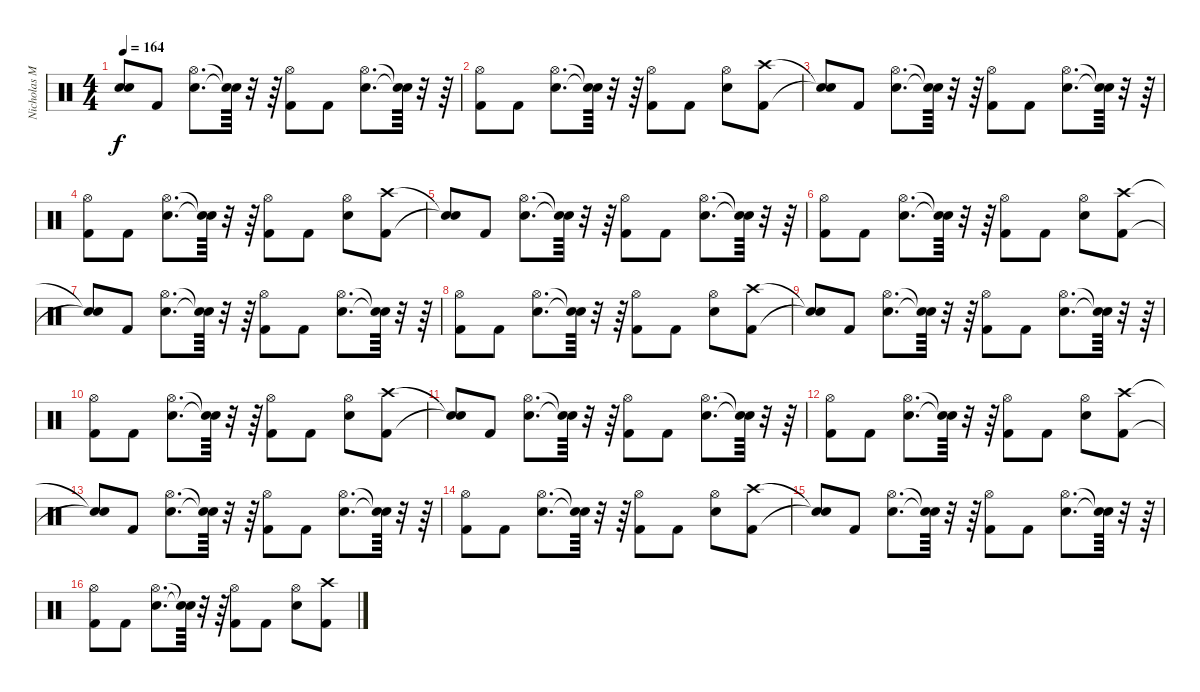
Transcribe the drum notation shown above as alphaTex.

\track ("Nicholas McBrain (Drums)" "Nicholas M") {instrument percussion}
\staff {score}
\articulation defaults
\ts (4 4)
\tempo 164
\clef neutral
\ks c
("Snare (hit)"{t} "Snare (hit)"{t}).8{dy f} "Kick (hit) 2".8 ("Snare (hit) 2" "Hi-Hat (open)").8{d} ("Snare (hit)"{t} "Snare (hit)"{t}).64 r.32 r.64 ("Kick (hit) 2" "Hi-Hat (open)").8 "Kick (hit) 2".8 ("Snare (hit) 2" "Hi-Hat (open)").8{d} ("Snare (hit)"{t} "Snare (hit)"{t}).64 r.32 r.64 |
("Kick (hit) 2" "Hi-Hat (open)").8 "Kick (hit) 2".8 ("Snare (hit) 2" "Hi-Hat (open)").8{d} ("Snare (hit)"{t} "Snare (hit)"{t}).64 r.32 r.64 ("Kick (hit) 2" "Hi-Hat (open)").8 "Kick (hit) 2".8 ("Snare (hit) 2" "Hi-Hat (open)").8 ("Kick (hit) 2" "Crash high (hit)").8 |
("Snare (hit)"{t} "Snare (hit)"{t}).8 "Kick (hit) 2".8 ("Snare (hit) 2" "Hi-Hat (open)").8{d} ("Snare (hit)"{t} "Snare (hit)"{t}).64 r.32 r.64 ("Kick (hit) 2" "Hi-Hat (open)").8 "Kick (hit) 2".8 ("Snare (hit) 2" "Hi-Hat (open)").8{d} ("Snare (hit)"{t} "Snare (hit)"{t}).64 r.32 r.64 |
("Kick (hit) 2" "Hi-Hat (open)").8 "Kick (hit) 2".8 ("Snare (hit) 2" "Hi-Hat (open)").8{d} ("Snare (hit)"{t} "Snare (hit)"{t}).64 r.32 r.64 ("Kick (hit) 2" "Hi-Hat (open)").8 "Kick (hit) 2".8 ("Snare (hit) 2" "Hi-Hat (open)").8 ("Kick (hit) 2" "Crash high (hit)").8 |
("Snare (hit)"{t} "Snare (hit)"{t}).8 "Kick (hit) 2".8 ("Snare (hit) 2" "Hi-Hat (open)").8{d} ("Snare (hit)"{t} "Snare (hit)"{t}).64 r.32 r.64 ("Kick (hit) 2" "Hi-Hat (open)").8 "Kick (hit) 2".8 ("Snare (hit) 2" "Hi-Hat (open)").8{d} ("Snare (hit)"{t} "Snare (hit)"{t}).64 r.32 r.64 |
("Kick (hit) 2" "Hi-Hat (open)").8 "Kick (hit) 2".8 ("Snare (hit) 2" "Hi-Hat (open)").8{d} ("Snare (hit)"{t} "Snare (hit)"{t}).64 r.32 r.64 ("Kick (hit) 2" "Hi-Hat (open)").8 "Kick (hit) 2".8 ("Snare (hit) 2" "Hi-Hat (open)").8 ("Kick (hit) 2" "Crash high (hit)").8 |
("Snare (hit)"{t} "Snare (hit)"{t}).8 "Kick (hit) 2".8 ("Snare (hit) 2" "Hi-Hat (open)").8{d} ("Snare (hit)"{t} "Snare (hit)"{t}).64 r.32 r.64 ("Kick (hit) 2" "Hi-Hat (open)").8 "Kick (hit) 2".8 ("Snare (hit) 2" "Hi-Hat (open)").8{d} ("Snare (hit)"{t} "Snare (hit)"{t}).64 r.32 r.64 |
("Kick (hit) 2" "Hi-Hat (open)").8 "Kick (hit) 2".8 ("Snare (hit) 2" "Hi-Hat (open)").8{d} ("Snare (hit)"{t} "Snare (hit)"{t}).64 r.32 r.64 ("Kick (hit) 2" "Hi-Hat (open)").8 "Kick (hit) 2".8 ("Snare (hit) 2" "Hi-Hat (open)").8 ("Kick (hit) 2" "Crash high (hit)").8 |
("Snare (hit)"{t} "Snare (hit)"{t}).8 "Kick (hit) 2".8 ("Snare (hit) 2" "Hi-Hat (open)").8{d} ("Snare (hit)"{t} "Snare (hit)"{t}).64 r.32 r.64 ("Kick (hit) 2" "Hi-Hat (open)").8 "Kick (hit) 2".8 ("Snare (hit) 2" "Hi-Hat (open)").8{d} ("Snare (hit)"{t} "Snare (hit)"{t}).64 r.32 r.64 |
("Kick (hit) 2" "Hi-Hat (open)").8 "Kick (hit) 2".8 ("Snare (hit) 2" "Hi-Hat (open)").8{d} ("Snare (hit)"{t} "Snare (hit)"{t}).64 r.32 r.64 ("Kick (hit) 2" "Hi-Hat (open)").8 "Kick (hit) 2".8 ("Snare (hit) 2" "Hi-Hat (open)").8 ("Kick (hit) 2" "Crash high (hit)").8 |
("Snare (hit)"{t} "Snare (hit)"{t}).8 "Kick (hit) 2".8 ("Snare (hit) 2" "Hi-Hat (open)").8{d} ("Snare (hit)"{t} "Snare (hit)"{t}).64 r.32 r.64 ("Kick (hit) 2" "Hi-Hat (open)").8 "Kick (hit) 2".8 ("Snare (hit) 2" "Hi-Hat (open)").8{d} ("Snare (hit)"{t} "Snare (hit)"{t}).64 r.32 r.64 |
("Kick (hit) 2" "Hi-Hat (open)").8 "Kick (hit) 2".8 ("Snare (hit) 2" "Hi-Hat (open)").8{d} ("Snare (hit)"{t} "Snare (hit)"{t}).64 r.32 r.64 ("Kick (hit) 2" "Hi-Hat (open)").8 "Kick (hit) 2".8 ("Snare (hit) 2" "Hi-Hat (open)").8 ("Kick (hit) 2" "Crash high (hit)").8 |
("Snare (hit)"{t} "Snare (hit)"{t}).8 "Kick (hit) 2".8 ("Snare (hit) 2" "Hi-Hat (open)").8{d} ("Snare (hit)"{t} "Snare (hit)"{t}).64 r.32 r.64 ("Kick (hit) 2" "Hi-Hat (open)").8 "Kick (hit) 2".8 ("Snare (hit) 2" "Hi-Hat (open)").8{d} ("Snare (hit)"{t} "Snare (hit)"{t}).64 r.32 r.64 |
("Kick (hit) 2" "Hi-Hat (open)").8 "Kick (hit) 2".8 ("Snare (hit) 2" "Hi-Hat (open)").8{d} ("Snare (hit)"{t} "Snare (hit)"{t}).64 r.32 r.64 ("Kick (hit) 2" "Hi-Hat (open)").8 "Kick (hit) 2".8 ("Snare (hit) 2" "Hi-Hat (open)").8 ("Kick (hit) 2" "Crash high (hit)").8 |
("Snare (hit)"{t} "Snare (hit)"{t}).8 "Kick (hit) 2".8 ("Snare (hit) 2" "Hi-Hat (open)").8{d} ("Snare (hit)"{t} "Snare (hit)"{t}).64 r.32 r.64 ("Kick (hit) 2" "Hi-Hat (open)").8 "Kick (hit) 2".8 ("Snare (hit) 2" "Hi-Hat (open)").8{d} ("Snare (hit)"{t} "Snare (hit)"{t}).64 r.32 r.64 |
("Kick (hit) 2" "Hi-Hat (open)").8 "Kick (hit) 2".8 ("Snare (hit) 2" "Hi-Hat (open)").8{d} ("Snare (hit)"{t} "Snare (hit)"{t}).64 r.32 r.64 ("Kick (hit) 2" "Hi-Hat (open)").8 "Kick (hit) 2".8 ("Snare (hit) 2" "Hi-Hat (open)").8 ("Kick (hit) 2" "Crash high (hit)").8
